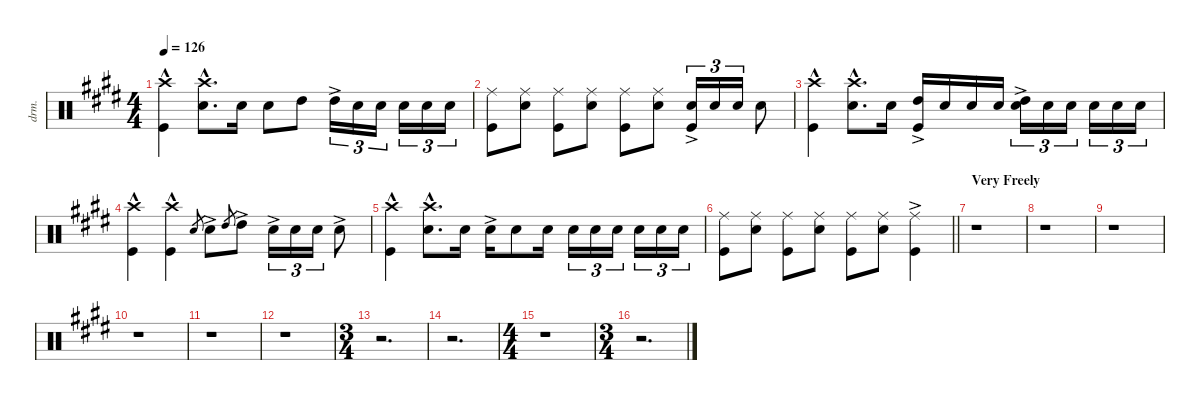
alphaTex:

\defaultSystemsLayout 4
\hideDynamics
\bracketExtendMode nobrackets
\otherSystemsTrackNameOrientation horizontal
\track ("Mitch" "drm.") {instrument percussion}
\staff {score}
\articulation defaults
\ts (4 4)
\tempo 126
\clef neutral
\ks e
("Crash high (hit)"{hac acc forcenatural} "Kick (hit)"{acc forcenatural}).4{dy f beam Down} ("Crash high (hit)"{hac acc forcenatural} "Snare (hit) 2"{acc forcenatural}).8{d beam Down} "Snare (hit) 2"{acc forcenatural}.16{beam Down} "Snare (hit) 2"{acc forcenatural}.8{beam Down} "High Tom (hit)"{acc forcenatural}.8{beam Down} "High Tom (hit)"{ac acc forcenatural}.16{tu (3 2) beam Down} "Snare (hit) 2"{acc forcenatural}.16{tu (3 2) beam Down} "Snare (hit) 2"{acc forcenatural}.16{tu (3 2) beam Down} "Snare (hit) 2"{acc forcenatural}.16{tu (3 2) beam Down} "Snare (hit) 2"{acc forcenatural}.16{tu (3 2) beam Down} "Snare (hit) 2"{acc forcenatural}.16{tu (3 2) beam Down} |
("Ride (middle)"{acc forcenatural} "Kick (hit)"{acc forcenatural}).8{beam Down} ("Ride (middle)"{acc forcenatural} "Snare (hit) 2"{acc forcenatural}).8{beam Down} ("Ride (middle)"{acc forcenatural} "Kick (hit)"{acc forcenatural}).8{beam Down} ("Ride (middle)"{acc forcenatural} "Snare (hit) 2"{acc forcenatural}).8{beam Down} ("Ride (middle)"{acc forcenatural} "Kick (hit)"{acc forcenatural}).8{beam Down} ("Ride (middle)"{acc forcenatural} "Snare (hit) 2"{acc forcenatural}).8{beam Down} ("Snare (hit) 2"{ac acc forcenatural} "Kick (hit)"{acc forcenatural}).16{tu (3 2) beam Up} "Snare (hit) 2"{acc forcenatural}.16{tu (3 2) beam Up} "Snare (hit) 2"{acc forcenatural}.16{tu (3 2) beam Up} "Snare (hit) 2"{acc forcenatural}.8{beam Down} |
("Crash high (hit)"{hac acc forcenatural} "Kick (hit)"{acc forcenatural}).4{beam Down} ("Crash high (hit)"{hac acc forcenatural} "Snare (hit) 2"{acc forcenatural}).8{d beam Down} "Snare (hit) 2"{acc forcenatural}.16{beam Down} ("High Tom (hit)"{ac acc forcenatural} "Kick (hit)"{acc forcenatural}).16{beam Up} "Snare (hit) 2"{acc forcenatural}.16{beam Up} "Snare (hit) 2"{acc forcenatural}.16{beam Up} "Snare (hit) 2"{acc forcenatural}.16{beam Up} ("High Tom (hit)"{ac acc forcenatural} "Snare (hit) 2"{acc forcenatural}).16{tu (3 2) beam Down} "Snare (hit) 2"{acc forcenatural}.16{tu (3 2) beam Down} "Snare (hit) 2"{acc forcenatural}.16{tu (3 2) beam Down} "Snare (hit) 2"{acc forcenatural}.16{tu (3 2) beam Down} "Snare (hit) 2"{acc forcenatural}.16{tu (3 2) beam Down} "Snare (hit) 2"{acc forcenatural}.16{tu (3 2) beam Down} |
("Crash high (hit)"{hac acc forcenatural} "Kick (hit)"{acc forcenatural}).4{beam Down} ("Crash high (hit)"{hac acc forcenatural} "Kick (hit)"{acc forcenatural}).4{beam Down} "Snare (hit) 2"{acc forcenatural}.8{gr dy mf beam Up} "Snare (hit) 2"{ac acc forcenatural}.8{dy f beam Down} "High Tom (hit)"{acc forcenatural}.8{gr dy mf beam Up} "High Tom (hit)"{ac acc forcenatural}.8{dy f beam Down} "Snare (hit) 2"{ac acc forcenatural}.16{tu (3 2) beam Down} "Snare (hit) 2"{acc forcenatural}.16{tu (3 2) beam Down} "Snare (hit) 2"{acc forcenatural}.16{tu (3 2) beam Down} "Snare (hit) 2"{ac acc forcenatural}.8{beam Down} |
("Crash high (hit)"{hac acc forcenatural} "Kick (hit)"{acc forcenatural}).4{beam Down} ("Crash high (hit)"{hac acc forcenatural} "Snare (hit) 2"{acc forcenatural}).8{d beam Down} "Snare (hit) 2"{acc forcenatural}.16{beam Down} "Snare (hit) 2"{ac acc forcenatural}.16{beam Down} "Snare (hit) 2"{acc forcenatural}.8{beam Down} "Snare (hit) 2"{acc forcenatural}.16{beam Down} "Snare (hit) 2"{acc forcenatural}.16{tu (3 2) beam Down} "Snare (hit) 2"{acc forcenatural}.16{tu (3 2) beam Down} "Snare (hit) 2"{acc forcenatural}.16{tu (3 2) beam Down} "Snare (hit) 2"{acc forcenatural}.16{tu (3 2) beam Down} "Snare (hit) 2"{acc forcenatural}.16{tu (3 2) beam Down} "Snare (hit) 2"{acc forcenatural}.16{tu (3 2) beam Down} |
\barLineRight lightlight
("Ride (middle)"{acc forcenatural} "Kick (hit)"{acc forcenatural}).8{beam Down} ("Ride (middle)"{acc forcenatural} "Snare (hit) 2"{acc forcenatural}).8{beam Down} ("Ride (middle)"{acc forcenatural} "Kick (hit)"{acc forcenatural}).8{beam Down} ("Ride (middle)"{acc forcenatural} "Snare (hit) 2"{acc forcenatural}).8{beam Down} ("Ride (middle)"{acc forcenatural} "Kick (hit)"{acc forcenatural}).8{beam Down} ("Ride (middle)"{acc forcenatural} "Snare (hit) 2"{acc forcenatural}).8{beam Down} ("Ride (middle)"{ac acc forcenatural} "Kick (hit)"{acc forcenatural}).4{beam Down} |
\section ("" "Very Freely")
r.1{beam Down} |
r.1{beam Down} |
r.1{beam Down} |
r.1{beam Down} |
r.1{beam Down} |
r.1{beam Down} |
\ts (3 4)
\beaming (8 2 2 2)
r.2{d beam Down} |
r.2{d beam Down} |
\ts (4 4)
\beaming (8 2 2 2 2)
r.1{beam Down} |
\ts (3 4)
\beaming (8 2 2 2)
r.2{d beam Down}
